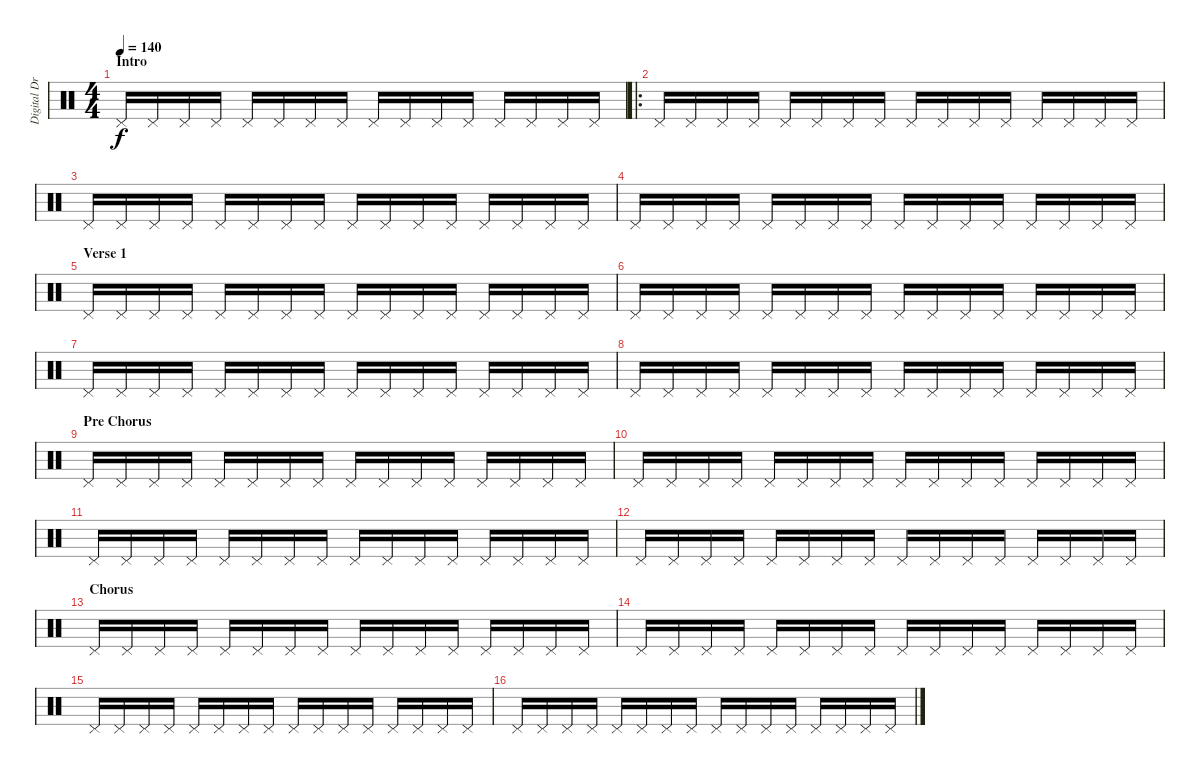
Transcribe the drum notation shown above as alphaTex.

\track ("Digital Drums - Vicko" "Digital Dr") {instrument percussion}
\staff {score}
\articulation defaults
\ts (4 4)
\section ("" "Intro")
\tempo 140
\clef neutral
\ks c "Pedal Hi-Hat (hit)".16{dy f} "Pedal Hi-Hat (hit)".16 "Pedal Hi-Hat (hit)".16 "Pedal Hi-Hat (hit)".16 "Pedal Hi-Hat (hit)".16 "Pedal Hi-Hat (hit)".16 "Pedal Hi-Hat (hit)".16 "Pedal Hi-Hat (hit)".16 "Pedal Hi-Hat (hit)".16 "Pedal Hi-Hat (hit)".16 "Pedal Hi-Hat (hit)".16 "Pedal Hi-Hat (hit)".16 "Pedal Hi-Hat (hit)".16 "Pedal Hi-Hat (hit)".16 "Pedal Hi-Hat (hit)".16 "Pedal Hi-Hat (hit)".16
|
\ro "Pedal Hi-Hat (hit)".16 "Pedal Hi-Hat (hit)".16 "Pedal Hi-Hat (hit)".16 "Pedal Hi-Hat (hit)".16 "Pedal Hi-Hat (hit)".16 "Pedal Hi-Hat (hit)".16 "Pedal Hi-Hat (hit)".16 "Pedal Hi-Hat (hit)".16 "Pedal Hi-Hat (hit)".16 "Pedal Hi-Hat (hit)".16 "Pedal Hi-Hat (hit)".16 "Pedal Hi-Hat (hit)".16 "Pedal Hi-Hat (hit)".16 "Pedal Hi-Hat (hit)".16 "Pedal Hi-Hat (hit)".16 "Pedal Hi-Hat (hit)".16
|
"Pedal Hi-Hat (hit)".16 "Pedal Hi-Hat (hit)".16 "Pedal Hi-Hat (hit)".16 "Pedal Hi-Hat (hit)".16 "Pedal Hi-Hat (hit)".16 "Pedal Hi-Hat (hit)".16 "Pedal Hi-Hat (hit)".16 "Pedal Hi-Hat (hit)".16 "Pedal Hi-Hat (hit)".16 "Pedal Hi-Hat (hit)".16 "Pedal Hi-Hat (hit)".16 "Pedal Hi-Hat (hit)".16 "Pedal Hi-Hat (hit)".16 "Pedal Hi-Hat (hit)".16 "Pedal Hi-Hat (hit)".16 "Pedal Hi-Hat (hit)".16 |
"Pedal Hi-Hat (hit)".16 "Pedal Hi-Hat (hit)".16 "Pedal Hi-Hat (hit)".16 "Pedal Hi-Hat (hit)".16 "Pedal Hi-Hat (hit)".16 "Pedal Hi-Hat (hit)".16 "Pedal Hi-Hat (hit)".16 "Pedal Hi-Hat (hit)".16 "Pedal Hi-Hat (hit)".16 "Pedal Hi-Hat (hit)".16 "Pedal Hi-Hat (hit)".16 "Pedal Hi-Hat (hit)".16 "Pedal Hi-Hat (hit)".16 "Pedal Hi-Hat (hit)".16 "Pedal Hi-Hat (hit)".16 "Pedal Hi-Hat (hit)".16 |
\section ("" "Verse 1")
"Pedal Hi-Hat (hit)".16 "Pedal Hi-Hat (hit)".16 "Pedal Hi-Hat (hit)".16 "Pedal Hi-Hat (hit)".16 "Pedal Hi-Hat (hit)".16 "Pedal Hi-Hat (hit)".16 "Pedal Hi-Hat (hit)".16 "Pedal Hi-Hat (hit)".16 "Pedal Hi-Hat (hit)".16 "Pedal Hi-Hat (hit)".16 "Pedal Hi-Hat (hit)".16 "Pedal Hi-Hat (hit)".16 "Pedal Hi-Hat (hit)".16 "Pedal Hi-Hat (hit)".16 "Pedal Hi-Hat (hit)".16 "Pedal Hi-Hat (hit)".16 |
"Pedal Hi-Hat (hit)".16 "Pedal Hi-Hat (hit)".16 "Pedal Hi-Hat (hit)".16 "Pedal Hi-Hat (hit)".16 "Pedal Hi-Hat (hit)".16 "Pedal Hi-Hat (hit)".16 "Pedal Hi-Hat (hit)".16 "Pedal Hi-Hat (hit)".16 "Pedal Hi-Hat (hit)".16 "Pedal Hi-Hat (hit)".16 "Pedal Hi-Hat (hit)".16 "Pedal Hi-Hat (hit)".16 "Pedal Hi-Hat (hit)".16 "Pedal Hi-Hat (hit)".16 "Pedal Hi-Hat (hit)".16 "Pedal Hi-Hat (hit)".16 |
"Pedal Hi-Hat (hit)".16 "Pedal Hi-Hat (hit)".16 "Pedal Hi-Hat (hit)".16 "Pedal Hi-Hat (hit)".16 "Pedal Hi-Hat (hit)".16 "Pedal Hi-Hat (hit)".16 "Pedal Hi-Hat (hit)".16 "Pedal Hi-Hat (hit)".16 "Pedal Hi-Hat (hit)".16 "Pedal Hi-Hat (hit)".16 "Pedal Hi-Hat (hit)".16 "Pedal Hi-Hat (hit)".16 "Pedal Hi-Hat (hit)".16 "Pedal Hi-Hat (hit)".16 "Pedal Hi-Hat (hit)".16 "Pedal Hi-Hat (hit)".16 |
"Pedal Hi-Hat (hit)".16 "Pedal Hi-Hat (hit)".16 "Pedal Hi-Hat (hit)".16 "Pedal Hi-Hat (hit)".16 "Pedal Hi-Hat (hit)".16 "Pedal Hi-Hat (hit)".16 "Pedal Hi-Hat (hit)".16 "Pedal Hi-Hat (hit)".16 "Pedal Hi-Hat (hit)".16 "Pedal Hi-Hat (hit)".16 "Pedal Hi-Hat (hit)".16 "Pedal Hi-Hat (hit)".16 "Pedal Hi-Hat (hit)".16 "Pedal Hi-Hat (hit)".16 "Pedal Hi-Hat (hit)".16 "Pedal Hi-Hat (hit)".16 |
\section ("" "Pre Chorus")
"Pedal Hi-Hat (hit)".16 "Pedal Hi-Hat (hit)".16 "Pedal Hi-Hat (hit)".16 "Pedal Hi-Hat (hit)".16 "Pedal Hi-Hat (hit)".16 "Pedal Hi-Hat (hit)".16 "Pedal Hi-Hat (hit)".16 "Pedal Hi-Hat (hit)".16 "Pedal Hi-Hat (hit)".16 "Pedal Hi-Hat (hit)".16 "Pedal Hi-Hat (hit)".16 "Pedal Hi-Hat (hit)".16 "Pedal Hi-Hat (hit)".16 "Pedal Hi-Hat (hit)".16 "Pedal Hi-Hat (hit)".16 "Pedal Hi-Hat (hit)".16 |
"Pedal Hi-Hat (hit)".16 "Pedal Hi-Hat (hit)".16 "Pedal Hi-Hat (hit)".16 "Pedal Hi-Hat (hit)".16 "Pedal Hi-Hat (hit)".16 "Pedal Hi-Hat (hit)".16 "Pedal Hi-Hat (hit)".16 "Pedal Hi-Hat (hit)".16 "Pedal Hi-Hat (hit)".16 "Pedal Hi-Hat (hit)".16 "Pedal Hi-Hat (hit)".16 "Pedal Hi-Hat (hit)".16 "Pedal Hi-Hat (hit)".16 "Pedal Hi-Hat (hit)".16 "Pedal Hi-Hat (hit)".16 "Pedal Hi-Hat (hit)".16 |
"Pedal Hi-Hat (hit)".16 "Pedal Hi-Hat (hit)".16 "Pedal Hi-Hat (hit)".16 "Pedal Hi-Hat (hit)".16 "Pedal Hi-Hat (hit)".16 "Pedal Hi-Hat (hit)".16 "Pedal Hi-Hat (hit)".16 "Pedal Hi-Hat (hit)".16 "Pedal Hi-Hat (hit)".16 "Pedal Hi-Hat (hit)".16 "Pedal Hi-Hat (hit)".16 "Pedal Hi-Hat (hit)".16 "Pedal Hi-Hat (hit)".16 "Pedal Hi-Hat (hit)".16 "Pedal Hi-Hat (hit)".16 "Pedal Hi-Hat (hit)".16 |
"Pedal Hi-Hat (hit)".16 "Pedal Hi-Hat (hit)".16 "Pedal Hi-Hat (hit)".16 "Pedal Hi-Hat (hit)".16 "Pedal Hi-Hat (hit)".16 "Pedal Hi-Hat (hit)".16 "Pedal Hi-Hat (hit)".16 "Pedal Hi-Hat (hit)".16 "Pedal Hi-Hat (hit)".16 "Pedal Hi-Hat (hit)".16 "Pedal Hi-Hat (hit)".16 "Pedal Hi-Hat (hit)".16 "Pedal Hi-Hat (hit)".16 "Pedal Hi-Hat (hit)".16 "Pedal Hi-Hat (hit)".16 "Pedal Hi-Hat (hit)".16 |
\section ("" "Chorus")
"Pedal Hi-Hat (hit)".16 "Pedal Hi-Hat (hit)".16 "Pedal Hi-Hat (hit)".16 "Pedal Hi-Hat (hit)".16 "Pedal Hi-Hat (hit)".16 "Pedal Hi-Hat (hit)".16 "Pedal Hi-Hat (hit)".16 "Pedal Hi-Hat (hit)".16 "Pedal Hi-Hat (hit)".16 "Pedal Hi-Hat (hit)".16 "Pedal Hi-Hat (hit)".16 "Pedal Hi-Hat (hit)".16 "Pedal Hi-Hat (hit)".16 "Pedal Hi-Hat (hit)".16 "Pedal Hi-Hat (hit)".16 "Pedal Hi-Hat (hit)".16 |
"Pedal Hi-Hat (hit)".16 "Pedal Hi-Hat (hit)".16 "Pedal Hi-Hat (hit)".16 "Pedal Hi-Hat (hit)".16 "Pedal Hi-Hat (hit)".16 "Pedal Hi-Hat (hit)".16 "Pedal Hi-Hat (hit)".16 "Pedal Hi-Hat (hit)".16 "Pedal Hi-Hat (hit)".16 "Pedal Hi-Hat (hit)".16 "Pedal Hi-Hat (hit)".16 "Pedal Hi-Hat (hit)".16 "Pedal Hi-Hat (hit)".16 "Pedal Hi-Hat (hit)".16 "Pedal Hi-Hat (hit)".16 "Pedal Hi-Hat (hit)".16 |
"Pedal Hi-Hat (hit)".16 "Pedal Hi-Hat (hit)".16 "Pedal Hi-Hat (hit)".16 "Pedal Hi-Hat (hit)".16 "Pedal Hi-Hat (hit)".16 "Pedal Hi-Hat (hit)".16 "Pedal Hi-Hat (hit)".16 "Pedal Hi-Hat (hit)".16 "Pedal Hi-Hat (hit)".16 "Pedal Hi-Hat (hit)".16 "Pedal Hi-Hat (hit)".16 "Pedal Hi-Hat (hit)".16 "Pedal Hi-Hat (hit)".16 "Pedal Hi-Hat (hit)".16 "Pedal Hi-Hat (hit)".16 "Pedal Hi-Hat (hit)".16 |
"Pedal Hi-Hat (hit)".16 "Pedal Hi-Hat (hit)".16 "Pedal Hi-Hat (hit)".16 "Pedal Hi-Hat (hit)".16 "Pedal Hi-Hat (hit)".16 "Pedal Hi-Hat (hit)".16 "Pedal Hi-Hat (hit)".16 "Pedal Hi-Hat (hit)".16 "Pedal Hi-Hat (hit)".16 "Pedal Hi-Hat (hit)".16 "Pedal Hi-Hat (hit)".16 "Pedal Hi-Hat (hit)".16 "Pedal Hi-Hat (hit)".16 "Pedal Hi-Hat (hit)".16 "Pedal Hi-Hat (hit)".16 "Pedal Hi-Hat (hit)".16
